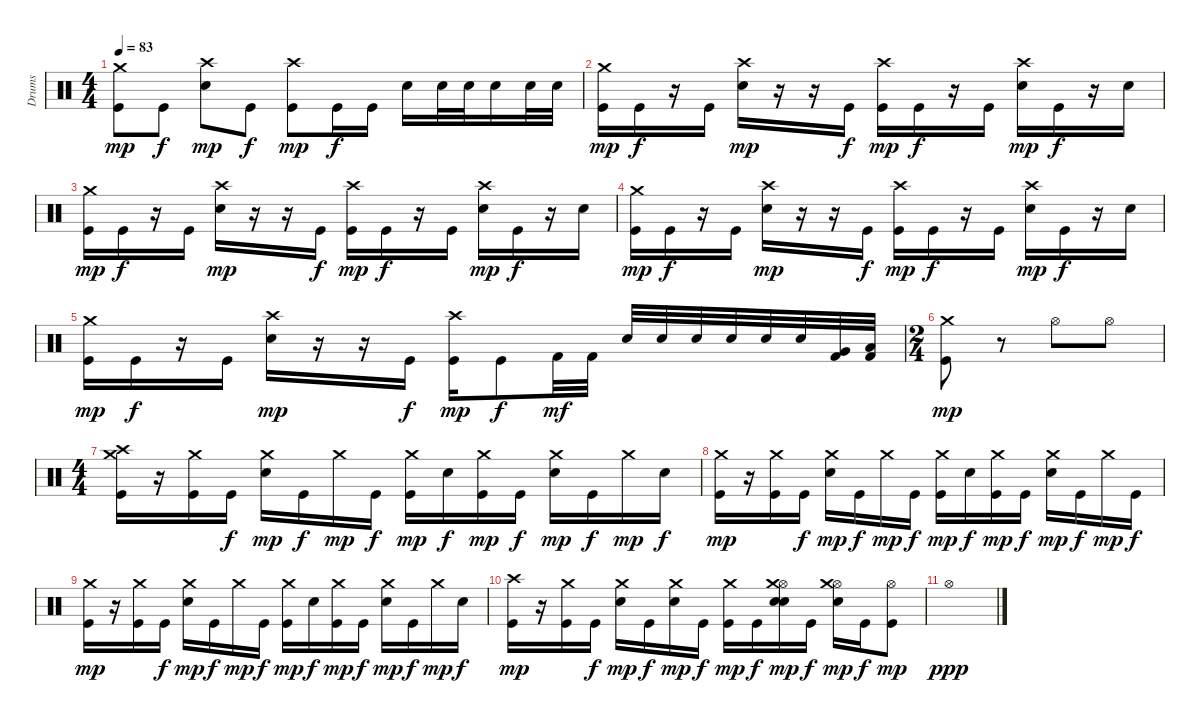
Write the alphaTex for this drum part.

\track ("Drums" "Drums") {instrument percussion}
\staff {score}
\articulation defaults
\ts (4 4)
\tempo 83
\clef neutral
\ks c
("Kick (hit)" "Crash medium (hit)").8{dy mp} "Kick (hit)".8{dy f} ("Snare (hit) 2" "Crash high (hit)").8{dy mp} "Kick (hit)".8{dy f} ("Kick (hit)" "Crash high (hit)").8{dy mp} "Kick (hit)".16{dy f} "Kick (hit)".16 "Snare (hit) 2".16 "Snare (hit) 2".32 "Snare (hit) 2".32 "Snare (hit) 2".16 "Snare (hit) 2".32 "Snare (hit) 2".32 |
("Kick (hit)" "Crash medium (hit)").16{dy mp} "Kick (hit)".16{dy f} r.16 "Kick (hit)".16 ("Snare (hit) 2" "Crash high (hit)").16{dy mp} r.16 r.16 "Kick (hit)".16{dy f} ("Kick (hit)" "Crash high (hit)").16{dy mp} "Kick (hit)".16{dy f} r.16 "Kick (hit)".16 ("Snare (hit) 2" "Crash high (hit)").16{dy mp} "Kick (hit)".16{dy f} r.16 "Snare (hit) 2".16 |
("Kick (hit)" "Crash medium (hit)").16{dy mp} "Kick (hit)".16{dy f} r.16 "Kick (hit)".16 ("Snare (hit) 2" "Crash high (hit)").16{dy mp} r.16 r.16 "Kick (hit)".16{dy f} ("Kick (hit)" "Crash high (hit)").16{dy mp} "Kick (hit)".16{dy f} r.16 "Kick (hit)".16 ("Snare (hit) 2" "Crash high (hit)").16{dy mp} "Kick (hit)".16{dy f} r.16 "Snare (hit) 2".16 |
("Kick (hit)" "Crash medium (hit)").16{dy mp} "Kick (hit)".16{dy f} r.16 "Kick (hit)".16 ("Snare (hit) 2" "Crash high (hit)").16{dy mp} r.16 r.16 "Kick (hit)".16{dy f} ("Kick (hit)" "Crash high (hit)").16{dy mp} "Kick (hit)".16{dy f} r.16 "Kick (hit)".16 ("Snare (hit) 2" "Crash high (hit)").16{dy mp} "Kick (hit)".16{dy f} r.16 "Snare (hit) 2".16 |
("Kick (hit)" "Crash medium (hit)").16{dy mp} "Kick (hit)".16{dy f} r.16 "Kick (hit)".16 ("Snare (hit) 2" "Crash high (hit)").16{dy mp} r.16 r.16 "Kick (hit)".16{dy f} ("Kick (hit)" "Crash high (hit)").16{dy mp} "Kick (hit)".8{dy f} "Kick (hit) 2".32{dy mf} "Kick (hit) 2".32 "Snare (hit) 2".32 "Snare (hit) 2".32 "Snare (hit) 2".32 "Snare (hit) 2".32 "Snare (hit) 2".32 "Snare (hit) 2".32 ("Very Low Tom (hit)" "Kick (hit) 2").32 ("Low Floor Tom (hit)" "Kick (hit) 2").32 |
\ts (2 4)
("Kick (hit)" "Crash medium (hit)").8{dy mp} r.8 "Hi-Hat (open)".8 "Hi-Hat (open)".8 |
\ts (4 4)
("Kick (hit)" "Crash medium (hit)" "Crash high (hit)").16 r.16 ("Kick (hit)" "Crash medium (hit)").16 "Kick (hit)".16{dy f} ("Snare (hit) 2" "Crash medium (hit)").16{dy mp} "Kick (hit)".16{dy f} "Crash medium (hit)".16{dy mp} "Kick (hit)".16{dy f} ("Kick (hit)" "Crash medium (hit)").16{dy mp} "Snare (hit) 2".16{dy f} ("Kick (hit)" "Crash medium (hit)").16{dy mp} "Kick (hit)".16{dy f} ("Snare (hit) 2" "Crash medium (hit)").16{dy mp} "Kick (hit)".16{dy f} "Crash medium (hit)".16{dy mp} "Snare (hit) 2".16{dy f} |
("Kick (hit)" "Crash medium (hit)").16{dy mp} r.16 ("Kick (hit)" "Crash medium (hit)").16 "Kick (hit)".16{dy f} ("Snare (hit) 2" "Crash medium (hit)").16{dy mp} "Kick (hit)".16{dy f} "Crash medium (hit)".16{dy mp} "Kick (hit)".16{dy f} ("Kick (hit)" "Crash medium (hit)").16{dy mp} "Snare (hit) 2".16{dy f} ("Kick (hit)" "Crash medium (hit)").16{dy mp} "Kick (hit)".16{dy f} ("Snare (hit) 2" "Crash medium (hit)").16{dy mp} "Kick (hit)".16{dy f} "Crash medium (hit)".16{dy mp} "Kick (hit)".16{dy f} |
("Kick (hit)" "Crash medium (hit)").16{dy mp} r.16 ("Kick (hit)" "Crash medium (hit)").16 "Kick (hit)".16{dy f} ("Snare (hit) 2" "Crash medium (hit)").16{dy mp} "Kick (hit)".16{dy f} "Crash medium (hit)".16{dy mp} "Kick (hit)".16{dy f} ("Kick (hit)" "Crash medium (hit)").16{dy mp} "Snare (hit) 2".16{dy f} ("Kick (hit)" "Crash medium (hit)").16{dy mp} "Kick (hit)".16{dy f} ("Snare (hit) 2" "Crash medium (hit)").16{dy mp} "Kick (hit)".16{dy f} "Crash medium (hit)".16{dy mp} "Snare (hit) 2".16{dy f} |
("Kick (hit)" "Crash high (hit)").16{dy mp} r.16 ("Kick (hit)" "Crash medium (hit)").16 "Kick (hit)".16{dy f} ("Snare (hit) 2" "Crash medium (hit)").16{dy mp} "Kick (hit)".16{dy f} ("Snare (hit) 2" "Crash medium (hit)").16{dy mp} "Kick (hit)".16{dy f} ("Kick (hit)" "Crash medium (hit)").16{dy mp} "Kick (hit)".16{dy f} ("Snare (hit) 2" "Snare (hit) 2" "Hi-Hat (open)" "Crash medium (hit)").16{bd 240 dy mp} "Kick (hit)".16{dy f} ("Snare (hit) 2" "Hi-Hat (open)" "Crash medium (hit)").16{dy mp} "Kick (hit)".16{dy f} ("Kick (hit)" "Hi-Hat (open)").8{dy mp} |
"Hi-Hat (open)".1{dy ppp}
